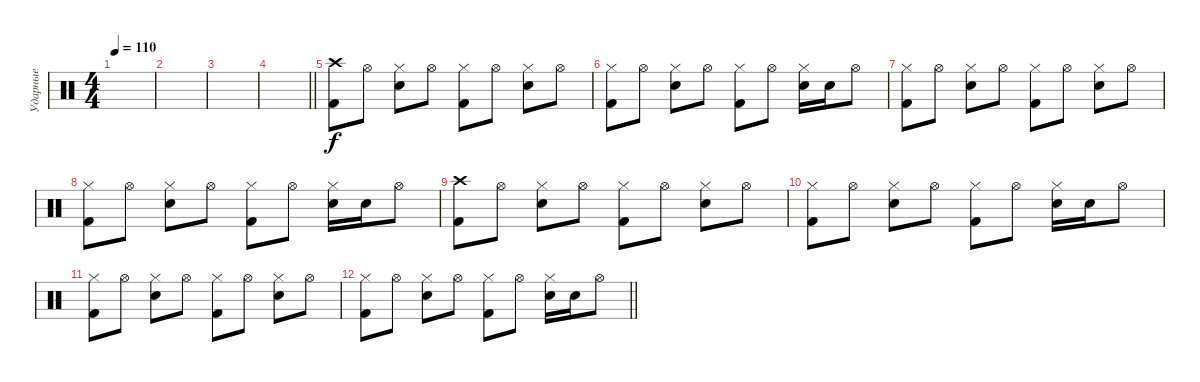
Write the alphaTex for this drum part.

\track ("Ударные" "Ударные") {instrument percussion}
\staff {score}
\articulation defaults
\ts (4 4)
\tempo 110
\clef neutral
\ks c
|
|
|
\barLineRight lightlight
|
("Crash high (hit)" "Kick (hit) 2").8 "Hi-Hat (open)".8 ("Hi-Hat (closed)" "Snare (hit) 2").8 "Hi-Hat (open)".8 ("Hi-Hat (closed)" "Kick (hit) 2").8 "Hi-Hat (open)".8 ("Hi-Hat (closed)" "Snare (hit) 2").8 "Hi-Hat (open)".8 |
("Hi-Hat (closed)" "Kick (hit) 2").8 "Hi-Hat (open)".8 ("Hi-Hat (closed)" "Snare (hit) 2").8 "Hi-Hat (open)".8 ("Hi-Hat (closed)" "Kick (hit) 2").8 "Hi-Hat (open)".8 ("Hi-Hat (closed)" "Snare (hit) 2").16 "Snare (hit) 2".16 "Hi-Hat (open)".8 |
("Hi-Hat (closed)" "Kick (hit) 2").8 "Hi-Hat (open)".8 ("Hi-Hat (closed)" "Snare (hit) 2").8 "Hi-Hat (open)".8 ("Hi-Hat (closed)" "Kick (hit) 2").8 "Hi-Hat (open)".8 ("Hi-Hat (closed)" "Snare (hit) 2").8 "Hi-Hat (open)".8 |
("Hi-Hat (closed)" "Kick (hit) 2").8 "Hi-Hat (open)".8 ("Hi-Hat (closed)" "Snare (hit) 2").8 "Hi-Hat (open)".8 ("Hi-Hat (closed)" "Kick (hit) 2").8 "Hi-Hat (open)".8 ("Hi-Hat (closed)" "Snare (hit) 2").16 "Snare (hit) 2".16 "Hi-Hat (open)".8 |
("Crash high (hit)" "Kick (hit) 2").8 "Hi-Hat (open)".8 ("Hi-Hat (closed)" "Snare (hit) 2").8 "Hi-Hat (open)".8 ("Hi-Hat (closed)" "Kick (hit) 2").8 "Hi-Hat (open)".8 ("Hi-Hat (closed)" "Snare (hit) 2").8 "Hi-Hat (open)".8 |
("Hi-Hat (closed)" "Kick (hit) 2").8 "Hi-Hat (open)".8 ("Hi-Hat (closed)" "Snare (hit) 2").8 "Hi-Hat (open)".8 ("Hi-Hat (closed)" "Kick (hit) 2").8 "Hi-Hat (open)".8 ("Hi-Hat (closed)" "Snare (hit) 2").16 "Snare (hit) 2".16 "Hi-Hat (open)".8 |
("Hi-Hat (closed)" "Kick (hit) 2").8 "Hi-Hat (open)".8 ("Hi-Hat (closed)" "Snare (hit) 2").8 "Hi-Hat (open)".8 ("Hi-Hat (closed)" "Kick (hit) 2").8 "Hi-Hat (open)".8 ("Hi-Hat (closed)" "Snare (hit) 2").8 "Hi-Hat (open)".8 |
\barLineRight lightlight
("Hi-Hat (closed)" "Kick (hit) 2").8 "Hi-Hat (open)".8 ("Hi-Hat (closed)" "Snare (hit) 2").8 "Hi-Hat (open)".8 ("Hi-Hat (closed)" "Kick (hit) 2").8 "Hi-Hat (open)".8 ("Hi-Hat (closed)" "Snare (hit) 2").16 "Snare (hit) 2".16 "Hi-Hat (open)".8
